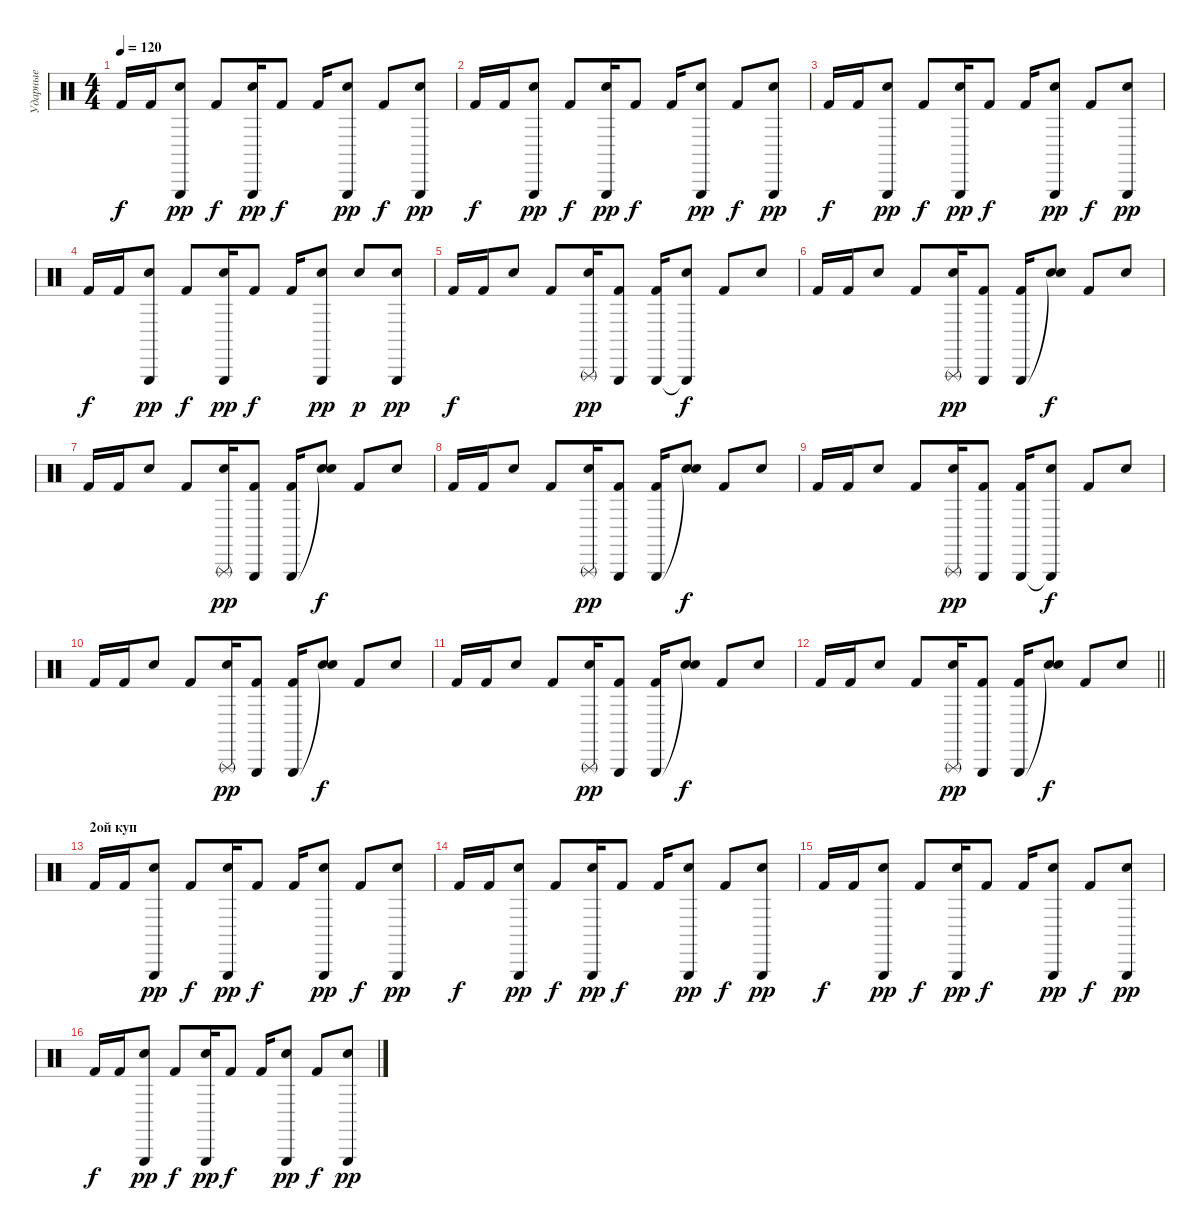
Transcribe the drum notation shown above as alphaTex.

\track ("Ударные" "Ударные") {instrument percussion}
\staff {score}
\articulation defaults
\ts (4 4)
\tempo 120
\clef neutral
\ks c "Kick (hit) 2".16{dy f} "Kick (hit) 2".16
("Triangle (hit)" "Electric Snare (hit)").8{dy pp} "Kick (hit) 2".8{dy f} ("Triangle (hit)" "Electric Snare (hit)").16{dy pp} "Kick (hit) 2".8{dy f} "Kick (hit) 2".16 ("Triangle (hit)" "Electric Snare (hit)").8{dy pp} "Kick (hit) 2".8{dy f} ("Triangle (hit)" "Electric Snare (hit)").8{dy pp} |
"Kick (hit) 2".16{dy f} "Kick (hit) 2".16 ("Triangle (hit)" "Electric Snare (hit)").8{dy pp} "Kick (hit) 2".8{dy f} ("Triangle (hit)" "Electric Snare (hit)").16{dy pp} "Kick (hit) 2".8{dy f} "Kick (hit) 2".16 ("Triangle (hit)" "Electric Snare (hit)").8{dy pp} "Kick (hit) 2".8{dy f} ("Triangle (hit)" "Electric Snare (hit)").8{dy pp} |
"Kick (hit) 2".16{dy f} "Kick (hit) 2".16 ("Triangle (hit)" "Electric Snare (hit)").8{dy pp} "Kick (hit) 2".8{dy f} ("Triangle (hit)" "Electric Snare (hit)").16{dy pp} "Kick (hit) 2".8{dy f} "Kick (hit) 2".16 ("Triangle (hit)" "Electric Snare (hit)").8{dy pp} "Kick (hit) 2".8{dy f} ("Triangle (hit)" "Electric Snare (hit)").8{dy pp} |
"Kick (hit) 2".16{dy f} "Kick (hit) 2".16 ("Triangle (hit)" "Electric Snare (hit)").8{dy pp} "Kick (hit) 2".8{dy f} ("Triangle (hit)" "Electric Snare (hit)").16{dy pp} "Kick (hit) 2".8{dy f} "Kick (hit) 2".16 ("Triangle (hit)" "Electric Snare (hit)").8{dy pp} "Electric Snare (hit)".8{dy p} ("Triangle (hit)" "Electric Snare (hit)").8{dy pp} |
"Kick (hit) 2".16{dy f} "Kick (hit) 2".16 "Electric Snare (hit)".8 "Kick (hit) 2".8 ("Triangle (rnute)" "Electric Snare (hit)").16{dy pp} ("Triangle (hit)" "Kick (hit) 2").8 ("Triangle (hit)" "Kick (hit) 2").16 ("Triangle (hit)"{t} "Electric Snare (hit)").8{dy f} "Kick (hit) 2".8 "Electric Snare (hit)".8 |
"Kick (hit) 2".16 "Kick (hit) 2".16 "Electric Snare (hit)".8 "Kick (hit) 2".8 ("Triangle (rnute)" "Electric Snare (hit)").16{dy pp} ("Triangle (hit)" "Kick (hit) 2").8 ("Triangle (hit)" "Kick (hit) 2").16 ("Snare (hit)"{t} "Electric Snare (hit)").8{dy f} "Kick (hit) 2".8 "Electric Snare (hit)".8 |
"Kick (hit) 2".16 "Kick (hit) 2".16 "Electric Snare (hit)".8 "Kick (hit) 2".8 ("Triangle (rnute)" "Electric Snare (hit)").16{dy pp} ("Triangle (hit)" "Kick (hit) 2").8 ("Triangle (hit)" "Kick (hit) 2").16 ("Snare (hit)"{t} "Electric Snare (hit)").8{dy f} "Kick (hit) 2".8 "Electric Snare (hit)".8 |
"Kick (hit) 2".16 "Kick (hit) 2".16 "Electric Snare (hit)".8 "Kick (hit) 2".8 ("Triangle (rnute)" "Electric Snare (hit)").16{dy pp} ("Triangle (hit)" "Kick (hit) 2").8 ("Triangle (hit)" "Kick (hit) 2").16 ("Snare (hit)"{t} "Electric Snare (hit)").8{dy f} "Kick (hit) 2".8 "Electric Snare (hit)".8 |
"Kick (hit) 2".16 "Kick (hit) 2".16 "Electric Snare (hit)".8 "Kick (hit) 2".8 ("Triangle (rnute)" "Electric Snare (hit)").16{dy pp} ("Triangle (hit)" "Kick (hit) 2").8 ("Triangle (hit)" "Kick (hit) 2").16 ("Triangle (hit)"{t} "Electric Snare (hit)").8{dy f} "Kick (hit) 2".8 "Electric Snare (hit)".8 |
"Kick (hit) 2".16 "Kick (hit) 2".16 "Electric Snare (hit)".8 "Kick (hit) 2".8 ("Triangle (rnute)" "Electric Snare (hit)").16{dy pp} ("Triangle (hit)" "Kick (hit) 2").8 ("Triangle (hit)" "Kick (hit) 2").16 ("Snare (hit)"{t} "Electric Snare (hit)").8{dy f} "Kick (hit) 2".8 "Electric Snare (hit)".8 |
"Kick (hit) 2".16 "Kick (hit) 2".16 "Electric Snare (hit)".8 "Kick (hit) 2".8 ("Triangle (rnute)" "Electric Snare (hit)").16{dy pp} ("Triangle (hit)" "Kick (hit) 2").8 ("Triangle (hit)" "Kick (hit) 2").16 ("Snare (hit)"{t} "Electric Snare (hit)").8{dy f} "Kick (hit) 2".8 "Electric Snare (hit)".8 |
\barLineRight lightlight "Kick (hit) 2".16 "Kick (hit) 2".16 "Electric Snare (hit)".8 "Kick (hit) 2".8
("Triangle (rnute)" "Electric Snare (hit)").16{dy pp} ("Triangle (hit)" "Kick (hit) 2").8 ("Triangle (hit)" "Kick (hit) 2").16 ("Snare (hit)"{t} "Electric Snare (hit)").8{dy f} "Kick (hit) 2".8 "Electric Snare (hit)".8 |
\section ("" "2ой куп")
"Kick (hit) 2".16 "Kick (hit) 2".16 ("Triangle (hit)" "Electric Snare (hit)").8{dy pp} "Kick (hit) 2".8{dy f} ("Triangle (hit)" "Electric Snare (hit)").16{dy pp} "Kick (hit) 2".8{dy f} "Kick (hit) 2".16 ("Triangle (hit)" "Electric Snare (hit)").8{dy pp} "Kick (hit) 2".8{dy f} ("Triangle (hit)" "Electric Snare (hit)").8{dy pp} |
"Kick (hit) 2".16{dy f} "Kick (hit) 2".16 ("Triangle (hit)" "Electric Snare (hit)").8{dy pp} "Kick (hit) 2".8{dy f} ("Triangle (hit)" "Electric Snare (hit)").16{dy pp} "Kick (hit) 2".8{dy f} "Kick (hit) 2".16 ("Triangle (hit)" "Electric Snare (hit)").8{dy pp} "Kick (hit) 2".8{dy f} ("Triangle (hit)" "Electric Snare (hit)").8{dy pp} |
"Kick (hit) 2".16{dy f} "Kick (hit) 2".16 ("Triangle (hit)" "Electric Snare (hit)").8{dy pp} "Kick (hit) 2".8{dy f} ("Triangle (hit)" "Electric Snare (hit)").16{dy pp} "Kick (hit) 2".8{dy f} "Kick (hit) 2".16 ("Triangle (hit)" "Electric Snare (hit)").8{dy pp} "Kick (hit) 2".8{dy f} ("Triangle (hit)" "Electric Snare (hit)").8{dy pp} |
"Kick (hit) 2".16{dy f} "Kick (hit) 2".16 ("Triangle (hit)" "Electric Snare (hit)").8{dy pp} "Kick (hit) 2".8{dy f} ("Triangle (hit)" "Electric Snare (hit)").16{dy pp} "Kick (hit) 2".8{dy f} "Kick (hit) 2".16 ("Triangle (hit)" "Electric Snare (hit)").8{dy pp} "Kick (hit) 2".8{dy f} ("Triangle (hit)" "Electric Snare (hit)").8{dy pp}
